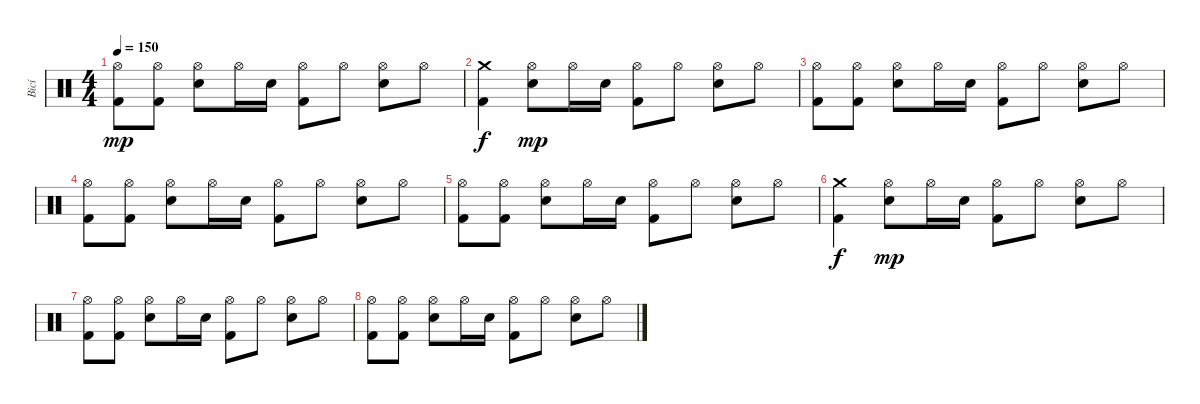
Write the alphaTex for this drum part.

\track ("Bicí" "Bicí") {instrument percussion}
\staff {score}
\articulation defaults
\ts (4 4)
\tempo 150
\clef neutral
\ks c
("Hi-Hat (open)" "Kick (hit) 2").8{dy mp} ("Hi-Hat (open)" "Kick (hit) 2").8 ("Hi-Hat (open)" "Electric Snare (hit)").8 "Hi-Hat (open)".16 "Electric Snare (hit)".16 ("Hi-Hat (open)" "Kick (hit) 2").8 "Hi-Hat (open)".8 ("Hi-Hat (open)" "Electric Snare (hit)").8 "Hi-Hat (open)".8 |
("Crash medium (hit)" "Kick (hit) 2").4{dy f} ("Hi-Hat (open)" "Electric Snare (hit)").8{dy mp} "Hi-Hat (open)".16 "Electric Snare (hit)".16 ("Hi-Hat (open)" "Kick (hit) 2").8 "Hi-Hat (open)".8 ("Hi-Hat (open)" "Electric Snare (hit)").8 "Hi-Hat (open)".8 |
("Hi-Hat (open)" "Kick (hit) 2").8 ("Hi-Hat (open)" "Kick (hit) 2").8 ("Hi-Hat (open)" "Electric Snare (hit)").8 "Hi-Hat (open)".16 "Electric Snare (hit)".16 ("Hi-Hat (open)" "Kick (hit) 2").8 "Hi-Hat (open)".8 ("Hi-Hat (open)" "Electric Snare (hit)").8 "Hi-Hat (open)".8 |
("Hi-Hat (open)" "Kick (hit) 2").8 ("Hi-Hat (open)" "Kick (hit) 2").8 ("Hi-Hat (open)" "Electric Snare (hit)").8 "Hi-Hat (open)".16 "Electric Snare (hit)".16 ("Hi-Hat (open)" "Kick (hit) 2").8 "Hi-Hat (open)".8 ("Hi-Hat (open)" "Electric Snare (hit)").8 "Hi-Hat (open)".8 |
("Hi-Hat (open)" "Kick (hit) 2").8 ("Hi-Hat (open)" "Kick (hit) 2").8 ("Hi-Hat (open)" "Electric Snare (hit)").8 "Hi-Hat (open)".16 "Electric Snare (hit)".16 ("Hi-Hat (open)" "Kick (hit) 2").8 "Hi-Hat (open)".8 ("Hi-Hat (open)" "Electric Snare (hit)").8 "Hi-Hat (open)".8 |
("Crash medium (hit)" "Kick (hit) 2").4{dy f} ("Hi-Hat (open)" "Electric Snare (hit)").8{dy mp} "Hi-Hat (open)".16 "Electric Snare (hit)".16 ("Hi-Hat (open)" "Kick (hit) 2").8 "Hi-Hat (open)".8 ("Hi-Hat (open)" "Electric Snare (hit)").8 "Hi-Hat (open)".8 |
("Hi-Hat (open)" "Kick (hit) 2").8 ("Hi-Hat (open)" "Kick (hit) 2").8 ("Hi-Hat (open)" "Electric Snare (hit)").8 "Hi-Hat (open)".16 "Electric Snare (hit)".16 ("Hi-Hat (open)" "Kick (hit) 2").8 "Hi-Hat (open)".8 ("Hi-Hat (open)" "Electric Snare (hit)").8 "Hi-Hat (open)".8 |
("Hi-Hat (open)" "Kick (hit) 2").8 ("Hi-Hat (open)" "Kick (hit) 2").8 ("Hi-Hat (open)" "Electric Snare (hit)").8 "Hi-Hat (open)".16 "Electric Snare (hit)".16 ("Hi-Hat (open)" "Kick (hit) 2").8 "Hi-Hat (open)".8 ("Hi-Hat (open)" "Electric Snare (hit)").8 "Hi-Hat (open)".8
